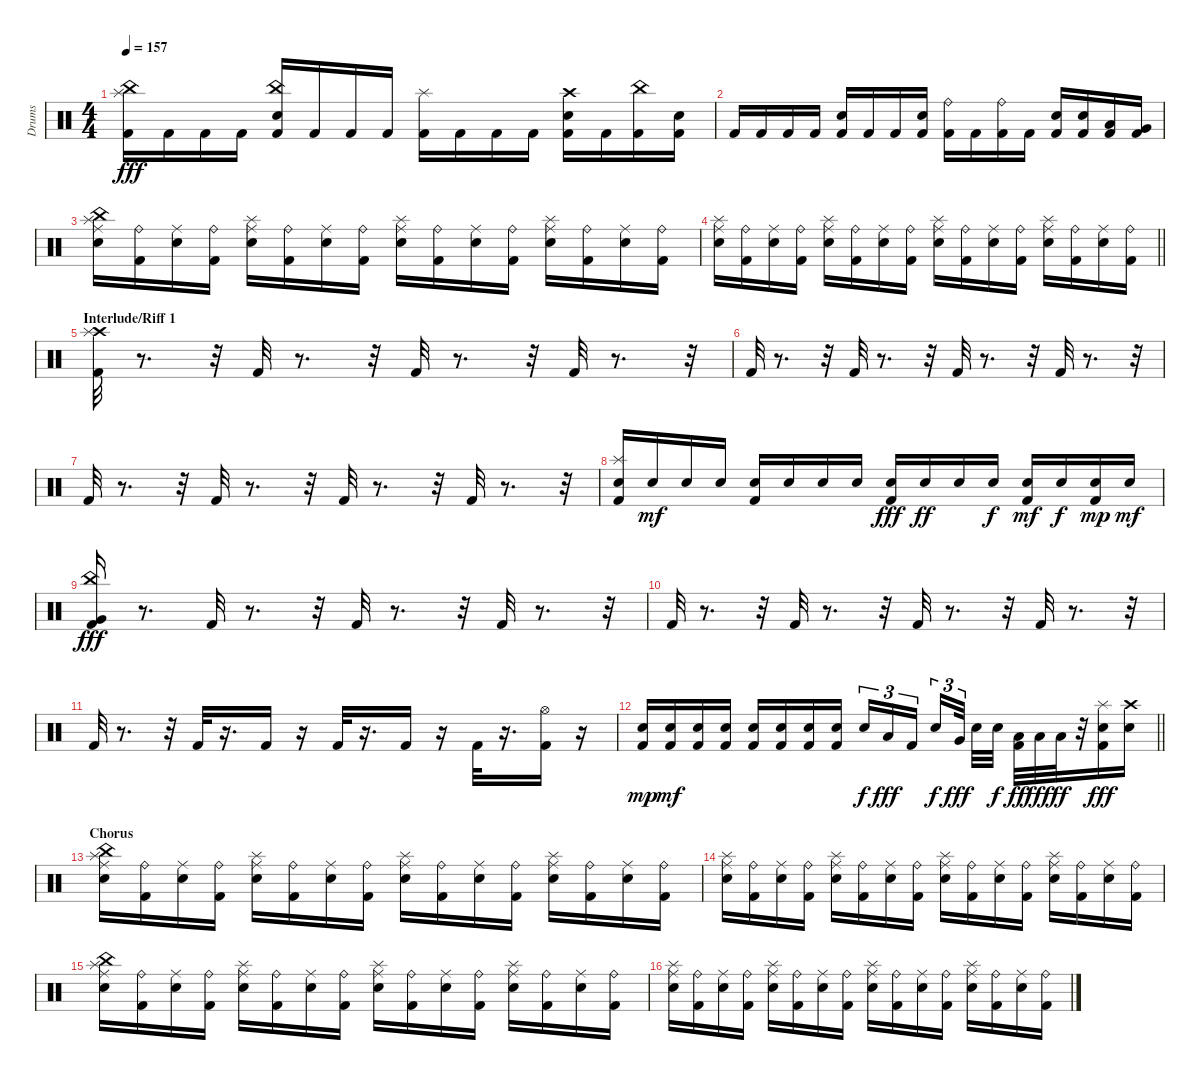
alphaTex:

\track ("Drums" "Drums") {instrument percussion}
\staff {score}
\articulation defaults
\ts (4 4)
\tempo 157
\clef neutral
\ks c
("Kick (hit) 2" "China (hit)" "Splash (hit)").16{dy fff} "Kick (hit) 2".16 "Kick (hit) 2".16 "Kick (hit) 2".16 ("Kick (hit) 2" "Snare (hit) 2" "China (hit)").16 "Kick (hit) 2".16 "Kick (hit) 2".16 "Kick (hit) 2".16 ("Kick (hit) 2" "Splash (hit)").16 "Kick (hit) 2".16 "Kick (hit) 2".16 "Kick (hit) 2".16 ("Kick (hit) 2" "Snare (hit) 2" "Crash high (hit)").16 "Kick (hit) 2".16 ("Kick (hit) 2" "China (hit)").16 ("Kick (hit) 2" "Snare (hit) 2").16 |
"Kick (hit) 2".16 "Kick (hit) 2".16 "Kick (hit) 2".16 "Kick (hit) 2".16 ("Kick (hit) 2" "Snare (hit) 2").16 "Kick (hit) 2".16 "Kick (hit) 2".16 ("Kick (hit) 2" "Snare (hit) 2").16 ("Kick (hit) 2" "Ride (bell)").16 "Kick (hit) 2".16 ("Kick (hit) 2" "Ride (bell)").16 "Kick (hit) 2".16 ("Kick (hit) 2" "Snare (hit) 2").16 ("Kick (hit) 2" "Snare (hit) 2").16 ("Kick (hit) 2" "Low Tom (hit)").16 ("Kick (hit) 2" "Very Low Tom (hit)").16 |
("Snare (hit) 2" "Ride (middle)" "China (hit)" "Splash (hit)").16 ("Kick (hit) 2" "Ride (bell)").16 ("Snare (hit) 2" "Ride (middle)").16 ("Kick (hit) 2" "Ride (bell)").16 ("Snare (hit) 2" "Ride (middle)" "Splash (hit)").16 ("Kick (hit) 2" "Ride (bell)").16 ("Snare (hit) 2" "Ride (middle)").16 ("Kick (hit) 2" "Ride (bell)").16 ("Snare (hit) 2" "Ride (middle)" "Splash (hit)").16 ("Kick (hit) 2" "Ride (bell)").16 ("Snare (hit) 2" "Ride (middle)").16 ("Kick (hit) 2" "Ride (bell)").16 ("Snare (hit) 2" "Ride (middle)" "Splash (hit)").16 ("Kick (hit) 2" "Ride (bell)").16 ("Snare (hit) 2" "Ride (middle)").16 ("Kick (hit) 2" "Ride (bell)").16 |
\barLineRight lightlight
("Snare (hit) 2" "Ride (middle)" "Splash (hit)").16 ("Kick (hit) 2" "Ride (bell)").16 ("Snare (hit) 2" "Ride (middle)").16 ("Kick (hit) 2" "Ride (bell)").16 ("Snare (hit) 2" "Ride (middle)" "Splash (hit)").16 ("Kick (hit) 2" "Ride (bell)").16 ("Snare (hit) 2" "Ride (middle)").16 ("Kick (hit) 2" "Ride (bell)").16 ("Snare (hit) 2" "Ride (middle)" "Splash (hit)").16 ("Kick (hit) 2" "Ride (bell)").16 ("Snare (hit) 2" "Ride (middle)").16 ("Kick (hit) 2" "Ride (bell)").16 ("Snare (hit) 2" "Ride (middle)" "Splash (hit)").16 ("Kick (hit) 2" "Ride (bell)").16 ("Snare (hit) 2" "Ride (middle)").16 ("Kick (hit) 2" "Ride (bell)").16 |
\section ("" "Interlude/Riff 1")
("Kick (hit) 2" "Crash high (hit)" "Splash (hit)").32 r.8{d} r.32 "Kick (hit) 2".32 r.8{d} r.32 "Kick (hit) 2".32 r.8{d} r.32 "Kick (hit) 2".32 r.8{d} r.32 |
"Kick (hit) 2".32 r.8{d} r.32 "Kick (hit) 2".32 r.8{d} r.32 "Kick (hit) 2".32 r.8{d} r.32 "Kick (hit) 2".32 r.8{d} r.32 |
"Kick (hit) 2".32 r.8{d} r.32 "Kick (hit) 2".32 r.8{d} r.32 "Kick (hit) 2".32 r.8{d} r.32 "Kick (hit) 2".32 r.8{d} r.32 |
("Kick (hit) 2" "Snare (hit) 2" "Splash (hit)").16 "Snare (hit) 2".16{dy mf} "Snare (hit) 2".16 "Snare (hit) 2".16 ("Kick (hit) 2" "Snare (hit) 2").16 "Snare (hit) 2".16 "Snare (hit) 2".16 "Snare (hit) 2".16 ("Kick (hit) 2" "Snare (hit) 2").16{dy fff} "Snare (hit) 2".16{dy ff} "Snare (hit) 2".16 "Snare (hit) 2".16{dy f} ("Kick (hit) 2" "Snare (hit) 2").16{dy mf} "Snare (hit) 2".16{dy f} ("Kick (hit) 2" "Snare (hit) 2").16{dy mp} "Snare (hit) 2".16{dy mf} |
("Kick (hit) 2" "Very Low Tom (hit)" "China (hit)").16{dy fff} r.8{d} "Kick (hit) 2".32 r.8{d} r.32 "Kick (hit) 2".32 r.8{d} r.32 "Kick (hit) 2".32 r.8{d} r.32 |
"Kick (hit) 2".32 r.8{d} r.32 "Kick (hit) 2".32 r.8{d} r.32 "Kick (hit) 2".32 r.8{d} r.32 "Kick (hit) 2".32 r.8{d} r.32 |
"Kick (hit) 2".32 r.8{d} r.32 "Kick (hit) 2".32 r.16{d} "Kick (hit) 2".16 r.16 "Kick (hit) 2".32 r.16{d} "Kick (hit) 2".16 r.16 "Kick (hit) 2".32 r.16{d} ("Kick (hit) 2" "Hi-Hat (open)").16 r.16 |
\barLineRight lightlight
("Kick (hit) 2" "Snare (hit) 2").16{dy mp} ("Kick (hit) 2" "Snare (hit) 2").16{dy mf} ("Kick (hit) 2" "Snare (hit) 2").16 ("Kick (hit) 2" "Snare (hit) 2").16 ("Kick (hit) 2" "Snare (hit) 2").16 ("Kick (hit) 2" "Snare (hit) 2").16 ("Kick (hit) 2" "Snare (hit) 2").16 ("Kick (hit) 2" "Snare (hit) 2").16 "Snare (hit) 2".16{tu (3 2) dy f} "Low Tom (hit)".16{tu (3 2) dy fff} "Kick (hit) 2".16{tu (3 2) beam splitsecondary} "Snare (hit) 2".16{tu (3 2) dy f} "Very Low Tom (hit)".32{tu (3 2) dy fff beam splitsecondary} "Snare (hit) 2".32 "Snare (hit) 2".32{dy f} ("Kick (hit) 2" "Low Tom (hit)").32{dy ff} "Low Tom (hit)".32{dy fff} "Low Tom (hit)".32{dy ff} r.32 ("Kick (hit) 2" "Snare (hit) 2" "Splash (hit)").16{dy fff} ("Snare (hit) 2" "Crash high (hit)").16 |
\section ("" "Chorus")
("Snare (hit) 2" "Ride (middle)" "China (hit)" "Splash (hit)").16 ("Kick (hit) 2" "Ride (bell)").16 ("Snare (hit) 2" "Ride (middle)").16 ("Kick (hit) 2" "Ride (bell)").16 ("Snare (hit) 2" "Ride (middle)" "Splash (hit)").16 ("Kick (hit) 2" "Ride (bell)").16 ("Snare (hit) 2" "Ride (middle)").16 ("Kick (hit) 2" "Ride (bell)").16 ("Snare (hit) 2" "Ride (middle)" "Splash (hit)").16 ("Kick (hit) 2" "Ride (bell)").16 ("Snare (hit) 2" "Ride (middle)").16 ("Kick (hit) 2" "Ride (bell)").16 ("Snare (hit) 2" "Ride (middle)" "Splash (hit)").16 ("Kick (hit) 2" "Ride (bell)").16 ("Snare (hit) 2" "Ride (middle)").16 ("Kick (hit) 2" "Ride (bell)").16 |
("Snare (hit) 2" "Ride (middle)" "Splash (hit)").16 ("Kick (hit) 2" "Ride (bell)").16 ("Snare (hit) 2" "Ride (middle)").16 ("Kick (hit) 2" "Ride (bell)").16 ("Snare (hit) 2" "Ride (middle)" "Splash (hit)").16 ("Kick (hit) 2" "Ride (bell)").16 ("Snare (hit) 2" "Ride (middle)").16 ("Kick (hit) 2" "Ride (bell)").16 ("Snare (hit) 2" "Ride (middle)" "Splash (hit)").16 ("Kick (hit) 2" "Ride (bell)").16 ("Snare (hit) 2" "Ride (middle)").16 ("Kick (hit) 2" "Ride (bell)").16 ("Snare (hit) 2" "Ride (middle)" "Splash (hit)").16 ("Kick (hit) 2" "Ride (bell)").16 ("Snare (hit) 2" "Ride (middle)").16 ("Kick (hit) 2" "Ride (bell)").16 |
("Snare (hit) 2" "Ride (middle)" "China (hit)" "Splash (hit)").16 ("Kick (hit) 2" "Ride (bell)").16 ("Snare (hit) 2" "Ride (middle)").16 ("Kick (hit) 2" "Ride (bell)").16 ("Snare (hit) 2" "Ride (middle)" "Splash (hit)").16 ("Kick (hit) 2" "Ride (bell)").16 ("Snare (hit) 2" "Ride (middle)").16 ("Kick (hit) 2" "Ride (bell)").16 ("Snare (hit) 2" "Ride (middle)" "Splash (hit)").16 ("Kick (hit) 2" "Ride (bell)").16 ("Snare (hit) 2" "Ride (middle)").16 ("Kick (hit) 2" "Ride (bell)").16 ("Snare (hit) 2" "Ride (middle)" "Splash (hit)").16 ("Kick (hit) 2" "Ride (bell)").16 ("Snare (hit) 2" "Ride (middle)").16 ("Kick (hit) 2" "Ride (bell)").16 |
("Snare (hit) 2" "Ride (middle)" "Splash (hit)").16 ("Kick (hit) 2" "Ride (bell)").16 ("Snare (hit) 2" "Ride (middle)").16 ("Kick (hit) 2" "Ride (bell)").16 ("Snare (hit) 2" "Ride (middle)" "Splash (hit)").16 ("Kick (hit) 2" "Ride (bell)").16 ("Snare (hit) 2" "Ride (middle)").16 ("Kick (hit) 2" "Ride (bell)").16 ("Snare (hit) 2" "Ride (middle)" "Splash (hit)").16 ("Kick (hit) 2" "Ride (bell)").16 ("Snare (hit) 2" "Ride (middle)").16 ("Kick (hit) 2" "Ride (bell)").16 ("Snare (hit) 2" "Ride (middle)" "Splash (hit)").16 ("Kick (hit) 2" "Ride (bell)").16 ("Snare (hit) 2" "Ride (middle)").16 ("Kick (hit) 2" "Ride (bell)").16
